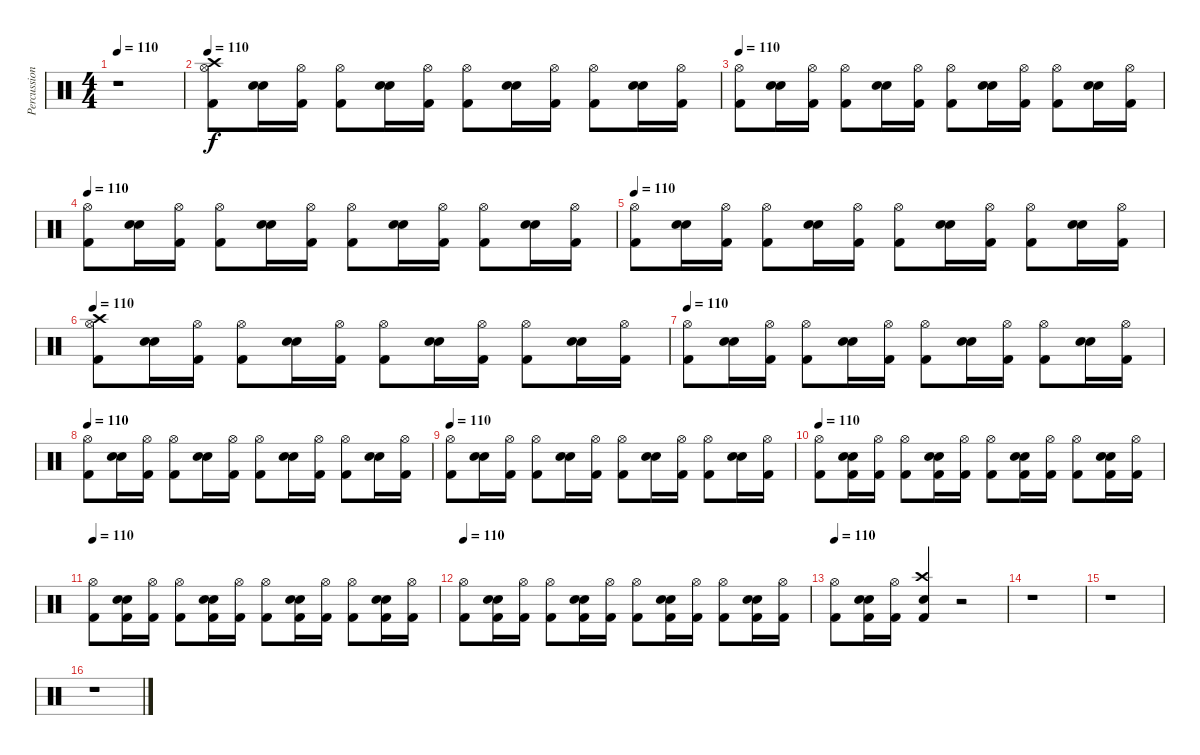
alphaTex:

\track ("Percussions" "Percussion") {instrument percussion}
\staff {score}
\articulation defaults
\ts (4 4)
\tempo 110
\clef neutral
\ks c
r.1{dy f} |
\tempo 110
("Kick (hit) 2" "Hi-Hat (open)" "Crash high (hit)").8 ("Snare (hit) 2" "Snare (hit) 2").16 ("Kick (hit) 2" "Hi-Hat (open)").16 ("Kick (hit) 2" "Hi-Hat (open)").8 ("Snare (hit) 2" "Snare (hit) 2").16 ("Kick (hit) 2" "Hi-Hat (open)").16 ("Kick (hit) 2" "Hi-Hat (open)").8 ("Snare (hit) 2" "Snare (hit) 2").16 ("Kick (hit) 2" "Hi-Hat (open)").16 ("Kick (hit) 2" "Hi-Hat (open)").8 ("Snare (hit) 2" "Snare (hit) 2").16 ("Kick (hit) 2" "Hi-Hat (open)").16 |
\tempo 110
("Kick (hit) 2" "Hi-Hat (open)").8 ("Snare (hit) 2" "Snare (hit) 2").16 ("Kick (hit) 2" "Hi-Hat (open)").16 ("Kick (hit) 2" "Hi-Hat (open)").8 ("Snare (hit) 2" "Snare (hit) 2").16 ("Kick (hit) 2" "Hi-Hat (open)").16 ("Kick (hit) 2" "Hi-Hat (open)").8 ("Snare (hit) 2" "Snare (hit) 2").16 ("Kick (hit) 2" "Hi-Hat (open)").16 ("Kick (hit) 2" "Hi-Hat (open)").8 ("Snare (hit) 2" "Snare (hit) 2").16 ("Kick (hit) 2" "Hi-Hat (open)").16 |
\tempo 110
("Kick (hit) 2" "Hi-Hat (open)").8 ("Snare (hit) 2" "Snare (hit) 2").16 ("Kick (hit) 2" "Hi-Hat (open)").16 ("Kick (hit) 2" "Hi-Hat (open)").8 ("Snare (hit) 2" "Snare (hit) 2").16 ("Kick (hit) 2" "Hi-Hat (open)").16 ("Kick (hit) 2" "Hi-Hat (open)").8 ("Snare (hit) 2" "Snare (hit) 2").16 ("Kick (hit) 2" "Hi-Hat (open)").16 ("Kick (hit) 2" "Hi-Hat (open)").8 ("Snare (hit) 2" "Snare (hit) 2").16 ("Kick (hit) 2" "Hi-Hat (open)").16 |
\tempo 110
("Kick (hit) 2" "Hi-Hat (open)").8 ("Snare (hit) 2" "Snare (hit) 2").16 ("Kick (hit) 2" "Hi-Hat (open)").16 ("Kick (hit) 2" "Hi-Hat (open)").8 ("Snare (hit) 2" "Snare (hit) 2").16 ("Kick (hit) 2" "Hi-Hat (open)").16 ("Kick (hit) 2" "Hi-Hat (open)").8 ("Snare (hit) 2" "Snare (hit) 2").16 ("Kick (hit) 2" "Hi-Hat (open)").16 ("Kick (hit) 2" "Hi-Hat (open)").8 ("Snare (hit) 2" "Snare (hit) 2").16 ("Kick (hit) 2" "Hi-Hat (open)").16 |
\tempo 110
("Kick (hit) 2" "Hi-Hat (open)" "Crash high (hit)").8 ("Snare (hit) 2" "Snare (hit) 2").16 ("Kick (hit) 2" "Hi-Hat (open)").16 ("Kick (hit) 2" "Hi-Hat (open)").8 ("Snare (hit) 2" "Snare (hit) 2").16 ("Kick (hit) 2" "Hi-Hat (open)").16 ("Kick (hit) 2" "Hi-Hat (open)").8 ("Snare (hit) 2" "Snare (hit) 2").16 ("Kick (hit) 2" "Hi-Hat (open)").16 ("Kick (hit) 2" "Hi-Hat (open)").8 ("Snare (hit) 2" "Snare (hit) 2").16 ("Kick (hit) 2" "Hi-Hat (open)").16 |
\tempo 110
("Kick (hit) 2" "Hi-Hat (open)").8 ("Snare (hit) 2" "Snare (hit) 2").16 ("Kick (hit) 2" "Hi-Hat (open)").16 ("Kick (hit) 2" "Hi-Hat (open)").8 ("Snare (hit) 2" "Snare (hit) 2").16 ("Kick (hit) 2" "Hi-Hat (open)").16 ("Kick (hit) 2" "Hi-Hat (open)").8 ("Snare (hit) 2" "Snare (hit) 2").16 ("Kick (hit) 2" "Hi-Hat (open)").16 ("Kick (hit) 2" "Hi-Hat (open)").8 ("Snare (hit) 2" "Snare (hit) 2").16 ("Kick (hit) 2" "Hi-Hat (open)").16 |
\tempo 110
("Kick (hit) 2" "Hi-Hat (open)").8 ("Snare (hit) 2" "Snare (hit) 2").16 ("Kick (hit) 2" "Hi-Hat (open)").16 ("Kick (hit) 2" "Hi-Hat (open)").8 ("Snare (hit) 2" "Snare (hit) 2").16 ("Kick (hit) 2" "Hi-Hat (open)").16 ("Kick (hit) 2" "Hi-Hat (open)").8 ("Snare (hit) 2" "Snare (hit) 2").16 ("Kick (hit) 2" "Hi-Hat (open)").16 ("Kick (hit) 2" "Hi-Hat (open)").8 ("Snare (hit) 2" "Snare (hit) 2").16 ("Kick (hit) 2" "Hi-Hat (open)").16 |
\tempo 110
("Kick (hit) 2" "Hi-Hat (open)").8 ("Snare (hit) 2" "Snare (hit) 2").16 ("Kick (hit) 2" "Hi-Hat (open)").16 ("Kick (hit) 2" "Hi-Hat (open)").8 ("Snare (hit) 2" "Snare (hit) 2").16 ("Kick (hit) 2" "Hi-Hat (open)").16 ("Kick (hit) 2" "Hi-Hat (open)").8 ("Snare (hit) 2" "Snare (hit) 2").16 ("Kick (hit) 2" "Hi-Hat (open)").16 ("Kick (hit) 2" "Hi-Hat (open)").8 ("Snare (hit) 2" "Snare (hit) 2").16 ("Kick (hit) 2" "Hi-Hat (open)").16 |
\tempo 110
("Kick (hit) 2" "Hi-Hat (open)").8 ("Kick (hit) 2" "Snare (hit) 2" "Snare (hit) 2").16 ("Kick (hit) 2" "Hi-Hat (open)").16 ("Kick (hit) 2" "Hi-Hat (open)").8 ("Kick (hit) 2" "Snare (hit) 2" "Snare (hit) 2").16 ("Kick (hit) 2" "Hi-Hat (open)").16 ("Kick (hit) 2" "Hi-Hat (open)").8 ("Kick (hit) 2" "Snare (hit) 2" "Snare (hit) 2").16 ("Kick (hit) 2" "Hi-Hat (open)").16 ("Kick (hit) 2" "Hi-Hat (open)").8 ("Kick (hit) 2" "Snare (hit) 2" "Snare (hit) 2").16 ("Kick (hit) 2" "Hi-Hat (open)").16 |
\tempo 110
("Kick (hit) 2" "Hi-Hat (open)").8 ("Kick (hit) 2" "Snare (hit) 2" "Snare (hit) 2").16 ("Kick (hit) 2" "Hi-Hat (open)").16 ("Kick (hit) 2" "Hi-Hat (open)").8 ("Kick (hit) 2" "Snare (hit) 2" "Snare (hit) 2").16 ("Kick (hit) 2" "Hi-Hat (open)").16 ("Kick (hit) 2" "Hi-Hat (open)").8 ("Kick (hit) 2" "Snare (hit) 2" "Snare (hit) 2").16 ("Kick (hit) 2" "Hi-Hat (open)").16 ("Kick (hit) 2" "Hi-Hat (open)").8 ("Kick (hit) 2" "Snare (hit) 2" "Snare (hit) 2").16 ("Kick (hit) 2" "Hi-Hat (open)").16 |
\tempo 110
("Kick (hit) 2" "Hi-Hat (open)").8 ("Kick (hit) 2" "Snare (hit) 2" "Snare (hit) 2").16 ("Kick (hit) 2" "Hi-Hat (open)").16 ("Kick (hit) 2" "Hi-Hat (open)").8 ("Kick (hit) 2" "Snare (hit) 2" "Snare (hit) 2").16 ("Kick (hit) 2" "Hi-Hat (open)").16 ("Kick (hit) 2" "Hi-Hat (open)").8 ("Kick (hit) 2" "Snare (hit) 2" "Snare (hit) 2").16 ("Kick (hit) 2" "Hi-Hat (open)").16 ("Kick (hit) 2" "Hi-Hat (open)").8 ("Kick (hit) 2" "Snare (hit) 2" "Snare (hit) 2").16 ("Kick (hit) 2" "Hi-Hat (open)").16 |
\tempo 110
("Kick (hit) 2" "Hi-Hat (open)").8 ("Kick (hit) 2" "Snare (hit) 2" "Snare (hit) 2").16 ("Kick (hit) 2" "Hi-Hat (open)").16 ("Kick (hit) 2" "Snare (hit) 2" "Crash high (hit)").4 r.2 |
r.1 |
r.1 |
r.1
